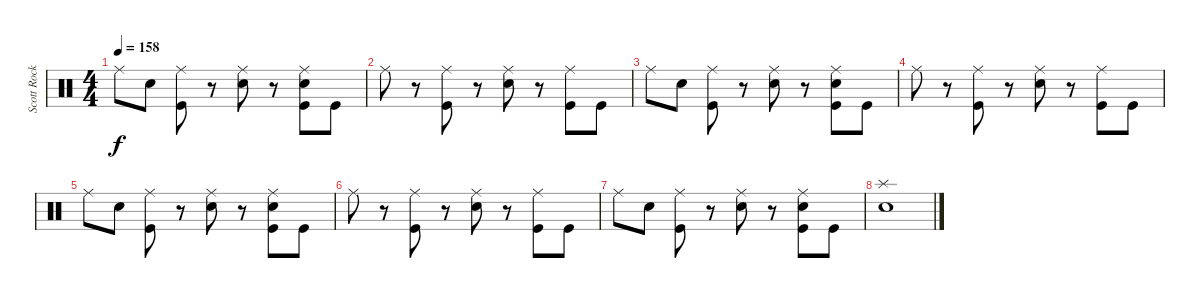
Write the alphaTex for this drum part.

\track ("Scott Rockenfield" "Scott Rock") {instrument percussion}
\staff {score}
\articulation defaults
\ts (4 4)
\tempo 158
\clef neutral
\ks c "Ride (middle)".8{dy f} "Electric Snare (hit)".8
("Kick (hit)" "Ride (middle)").8 r.8 ("Ride (middle)" "Electric Snare (hit)").8 r.8 ("Kick (hit)" "Ride (middle)" "Electric Snare (hit)").8 "Kick (hit)".8 |
"Ride (middle)".8 r.8 ("Kick (hit)" "Ride (middle)").8 r.8 ("Ride (middle)" "Electric Snare (hit)").8 r.8 ("Kick (hit)" "Ride (middle)").8 "Kick (hit)".8 |
"Ride (middle)".8 "Electric Snare (hit)".8 ("Kick (hit)" "Ride (middle)").8 r.8 ("Ride (middle)" "Electric Snare (hit)").8 r.8 ("Kick (hit)" "Ride (middle)" "Electric Snare (hit)").8 "Kick (hit)".8 |
"Ride (middle)".8 r.8 ("Kick (hit)" "Ride (middle)").8 r.8 ("Ride (middle)" "Electric Snare (hit)").8 r.8 ("Kick (hit)" "Ride (middle)").8 "Kick (hit)".8 |
"Ride (middle)".8 "Electric Snare (hit)".8 ("Kick (hit)" "Ride (middle)").8 r.8 ("Ride (middle)" "Electric Snare (hit)").8 r.8 ("Kick (hit)" "Ride (middle)" "Electric Snare (hit)").8 "Kick (hit)".8 |
"Ride (middle)".8 r.8 ("Kick (hit)" "Ride (middle)").8 r.8 ("Ride (middle)" "Electric Snare (hit)").8 r.8 ("Kick (hit)" "Ride (middle)").8 "Kick (hit)".8 |
"Ride (middle)".8 "Electric Snare (hit)".8 ("Kick (hit)" "Ride (middle)").8 r.8 ("Ride (middle)" "Electric Snare (hit)").8 r.8 ("Kick (hit)" "Ride (middle)" "Electric Snare (hit)").8 "Kick (hit)".8 |
("Splash (hit)" "Electric Snare (hit)").1
